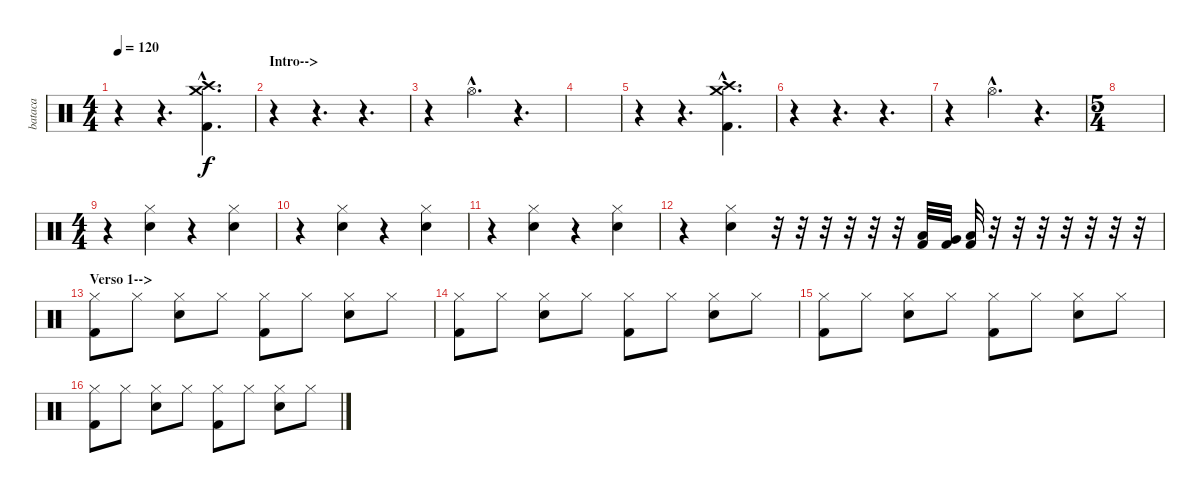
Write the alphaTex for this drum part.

\track ("bataca" "bataca") {instrument percussion}
\staff {score}
\articulation defaults
\ts (4 4)
\tempo 120
\clef neutral
\ks c
r.4{dy f} r.4{d} ("Kick (hit) 2"{hac} "Crash high (hit)"{hac} "Crash medium (hit)"{hac}).4{d} |
\section ("" "Intro-->")
r.4 r.4{d} r.4{d} |
r.4 "Hi-Hat (open)"{hac}.4{d} r.4{d} |
|
r.4 r.4{d} ("Kick (hit) 2"{hac} "Crash high (hit)"{hac} "Crash medium (hit)"{hac}).4{d} |
r.4 r.4{d} r.4{d} |
r.4 "Hi-Hat (open)"{hac}.4{d} r.4{d} |
\ts (5 4)
|
\ts (4 4)
r.4 ("Hi-Hat (closed)" "Electric Snare (hit)").4 r.4 ("Hi-Hat (closed)" "Electric Snare (hit)").4 |
r.4 ("Hi-Hat (closed)" "Electric Snare (hit)").4 r.4 ("Hi-Hat (closed)" "Electric Snare (hit)").4 |
r.4 ("Hi-Hat (closed)" "Electric Snare (hit)").4 r.4 ("Hi-Hat (closed)" "Electric Snare (hit)").4 |
r.4 ("Hi-Hat (closed)" "Electric Snare (hit)").4 r.32 r.32 r.32 r.32 r.32 r.32 ("Low Tom (hit)" "Kick (hit) 2").32 ("Very Low Tom (hit)" "Kick (hit) 2").32 ("Low Floor Tom (hit)" "Kick (hit) 2").32 r.32 r.32 r.32 r.32 r.32 r.32 r.32 |
\section ("" "Verso 1-->")
("Hi-Hat (closed)" "Kick (hit) 2").8 "Hi-Hat (closed)".8 ("Hi-Hat (closed)" "Electric Snare (hit)").8 "Hi-Hat (closed)".8 ("Hi-Hat (closed)" "Kick (hit) 2").8 "Hi-Hat (closed)".8 ("Hi-Hat (closed)" "Electric Snare (hit)").8 "Hi-Hat (closed)".8 |
("Hi-Hat (closed)" "Kick (hit) 2").8 "Hi-Hat (closed)".8 ("Hi-Hat (closed)" "Electric Snare (hit)").8 "Hi-Hat (closed)".8 ("Hi-Hat (closed)" "Kick (hit) 2").8 "Hi-Hat (closed)".8 ("Hi-Hat (closed)" "Electric Snare (hit)").8 "Hi-Hat (closed)".8 |
("Hi-Hat (closed)" "Kick (hit) 2").8 "Hi-Hat (closed)".8 ("Hi-Hat (closed)" "Electric Snare (hit)").8 "Hi-Hat (closed)".8 ("Hi-Hat (closed)" "Kick (hit) 2").8 "Hi-Hat (closed)".8 ("Hi-Hat (closed)" "Electric Snare (hit)").8 "Hi-Hat (closed)".8 |
("Hi-Hat (closed)" "Kick (hit) 2").8 "Hi-Hat (closed)".8 ("Hi-Hat (closed)" "Electric Snare (hit)").8 "Hi-Hat (closed)".8 ("Hi-Hat (closed)" "Kick (hit) 2").8 "Hi-Hat (closed)".8 ("Hi-Hat (closed)" "Electric Snare (hit)").8 "Hi-Hat (closed)".8
